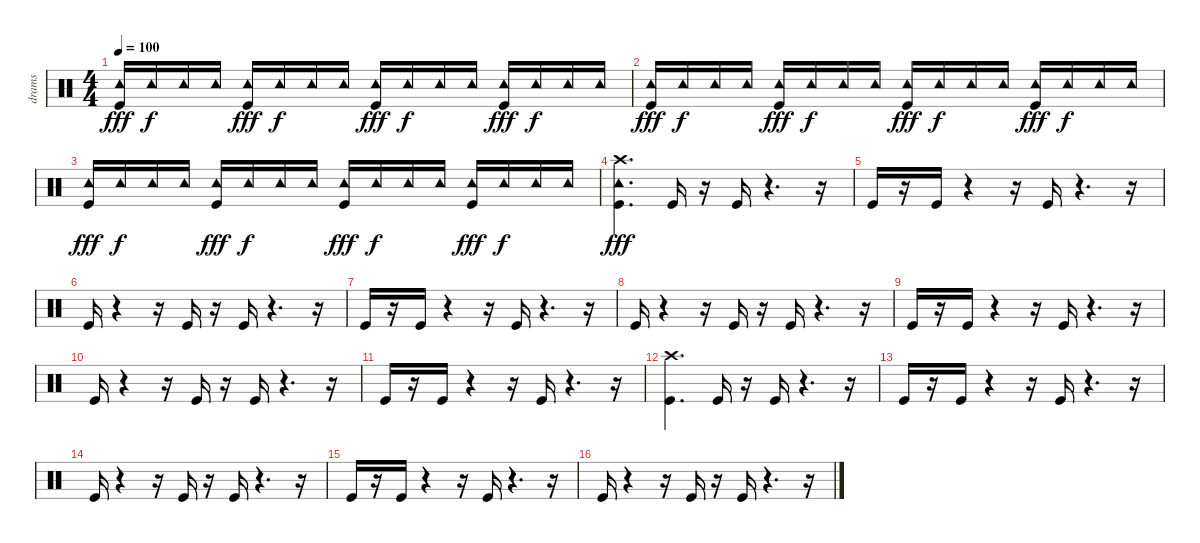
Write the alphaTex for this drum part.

\track ("drams" "drams") {instrument percussion}
\staff {score}
\articulation defaults
\ts (4 4)
\tempo 100
\clef neutral
\ks c
("Kick (hit)" "Tambourine (hit)").16{dy fff} "Tambourine (hit)".16{dy f} "Tambourine (hit)".16 "Tambourine (hit)".16 ("Kick (hit)" "Tambourine (hit)").16{dy fff} "Tambourine (hit)".16{dy f} "Tambourine (hit)".16 "Tambourine (hit)".16 ("Kick (hit)" "Tambourine (hit)").16{dy fff} "Tambourine (hit)".16{dy f} "Tambourine (hit)".16 "Tambourine (hit)".16 ("Kick (hit)" "Tambourine (hit)").16{dy fff} "Tambourine (hit)".16{dy f} "Tambourine (hit)".16 "Tambourine (hit)".16 |
("Kick (hit)" "Tambourine (hit)").16{dy fff} "Tambourine (hit)".16{dy f} "Tambourine (hit)".16 "Tambourine (hit)".16 ("Kick (hit)" "Tambourine (hit)").16{dy fff} "Tambourine (hit)".16{dy f} "Tambourine (hit)".16 "Tambourine (hit)".16 ("Kick (hit)" "Tambourine (hit)").16{dy fff} "Tambourine (hit)".16{dy f} "Tambourine (hit)".16 "Tambourine (hit)".16 ("Kick (hit)" "Tambourine (hit)").16{dy fff} "Tambourine (hit)".16{dy f} "Tambourine (hit)".16 "Tambourine (hit)".16 |
("Kick (hit)" "Tambourine (hit)").16{dy fff} "Tambourine (hit)".16{dy f} "Tambourine (hit)".16 "Tambourine (hit)".16 ("Kick (hit)" "Tambourine (hit)").16{dy fff} "Tambourine (hit)".16{dy f} "Tambourine (hit)".16 "Tambourine (hit)".16 ("Kick (hit)" "Tambourine (hit)").16{dy fff} "Tambourine (hit)".16{dy f} "Tambourine (hit)".16 "Tambourine (hit)".16 ("Kick (hit)" "Tambourine (hit)").16{dy fff} "Tambourine (hit)".16{dy f} "Tambourine (hit)".16 "Tambourine (hit)".16 |
("Kick (hit)" "Crash high (hit)" "Tambourine (hit)").4{d dy fff} "Kick (hit)".16 r.16 "Kick (hit)".16 r.4{d} r.16 |
"Kick (hit)".16 r.16 "Kick (hit)".16 r.4 r.16 "Kick (hit)".16 r.4{d} r.16 |
"Kick (hit)".16 r.4 r.16 "Kick (hit)".16 r.16 "Kick (hit)".16 r.4{d} r.16 |
"Kick (hit)".16 r.16 "Kick (hit)".16 r.4 r.16 "Kick (hit)".16 r.4{d} r.16 |
"Kick (hit)".16 r.4 r.16 "Kick (hit)".16 r.16 "Kick (hit)".16 r.4{d} r.16 |
"Kick (hit)".16 r.16 "Kick (hit)".16 r.4 r.16 "Kick (hit)".16 r.4{d} r.16 |
"Kick (hit)".16 r.4 r.16 "Kick (hit)".16 r.16 "Kick (hit)".16 r.4{d} r.16 |
"Kick (hit)".16 r.16 "Kick (hit)".16 r.4 r.16 "Kick (hit)".16 r.4{d} r.16 |
("Kick (hit)" "Crash high (hit)").4{d} "Kick (hit)".16 r.16 "Kick (hit)".16 r.4{d} r.16 |
"Kick (hit)".16 r.16 "Kick (hit)".16 r.4 r.16 "Kick (hit)".16 r.4{d} r.16 |
"Kick (hit)".16 r.4 r.16 "Kick (hit)".16 r.16 "Kick (hit)".16 r.4{d} r.16 |
"Kick (hit)".16 r.16 "Kick (hit)".16 r.4 r.16 "Kick (hit)".16 r.4{d} r.16 |
"Kick (hit)".16 r.4 r.16 "Kick (hit)".16 r.16 "Kick (hit)".16 r.4{d} r.16
